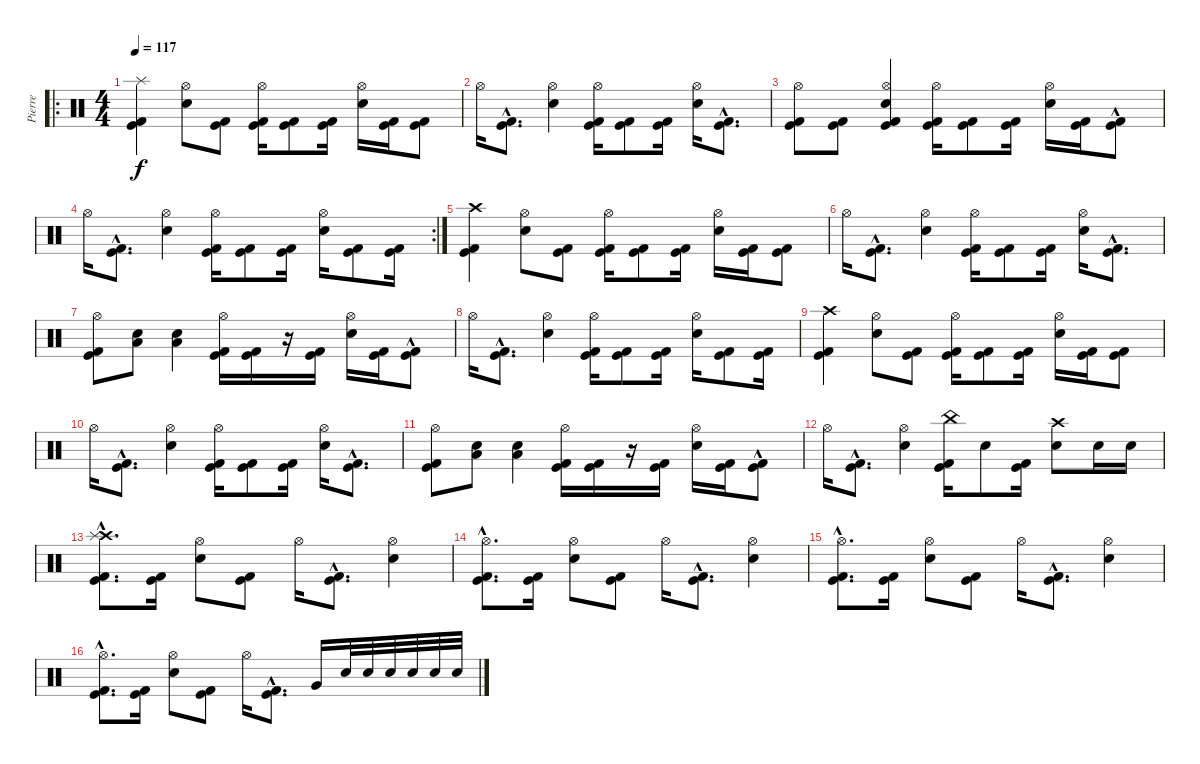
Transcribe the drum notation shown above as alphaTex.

\track ("Pierre" "Pierre") {instrument percussion}
\staff {score}
\articulation defaults
\ro
\ts (4 4)
\tempo 117
\clef neutral
\ks c
("Splash (hit)" "Kick (hit)" "Kick (hit) 2").4{dy f} ("Hi-Hat (open)" "Electric Snare (hit)").8 ("Kick (hit)" "Kick (hit) 2").8 ("Hi-Hat (open)" "Kick (hit)" "Kick (hit) 2").16 ("Kick (hit)" "Kick (hit) 2").8 ("Kick (hit)" "Kick (hit) 2").16 ("Hi-Hat (open)" "Electric Snare (hit)").16 ("Kick (hit)" "Kick (hit) 2").16 ("Kick (hit)" "Kick (hit) 2").8 |
"Hi-Hat (open)".16 ("Kick (hit)"{hac} "Kick (hit) 2"{hac}).8{d} ("Hi-Hat (open)" "Electric Snare (hit)").4 ("Hi-Hat (open)" "Kick (hit)" "Kick (hit) 2").16 ("Kick (hit)" "Kick (hit) 2").8 ("Kick (hit)" "Kick (hit) 2").16 ("Hi-Hat (open)" "Electric Snare (hit)").16 ("Kick (hit)"{hac} "Kick (hit) 2"{hac}).8{d} |
("Hi-Hat (open)" "Kick (hit)" "Kick (hit) 2").8 ("Kick (hit)" "Kick (hit) 2").8 ("Hi-Hat (open)" "Kick (hit)" "Electric Snare (hit)" "Kick (hit) 2").4 ("Hi-Hat (open)" "Kick (hit)" "Kick (hit) 2").16 ("Kick (hit)" "Kick (hit) 2").8 ("Kick (hit)" "Kick (hit) 2").16 ("Hi-Hat (open)" "Electric Snare (hit)").16 ("Kick (hit)" "Kick (hit) 2").16 ("Kick (hit)" "Kick (hit) 2"{hac}).8 |
\rc 2 "Hi-Hat (open)".16
("Kick (hit)"{hac} "Kick (hit) 2"{hac}).8{d} ("Hi-Hat (open)" "Electric Snare (hit)").4 ("Hi-Hat (open)" "Kick (hit)" "Kick (hit) 2").16 ("Kick (hit)" "Kick (hit) 2").8 ("Kick (hit)" "Kick (hit) 2").16 ("Hi-Hat (open)" "Electric Snare (hit)").16 ("Kick (hit)" "Kick (hit) 2").8 ("Kick (hit)" "Kick (hit) 2").16 |
("Crash high (hit)" "Kick (hit)" "Kick (hit) 2").4 ("Hi-Hat (open)" "Electric Snare (hit)").8 ("Kick (hit)" "Kick (hit) 2").8 ("Hi-Hat (open)" "Kick (hit)" "Kick (hit) 2").16 ("Kick (hit)" "Kick (hit) 2").8 ("Kick (hit)" "Kick (hit) 2").16 ("Hi-Hat (open)" "Electric Snare (hit)").16 ("Kick (hit)" "Kick (hit) 2").16 ("Kick (hit)" "Kick (hit) 2").8 |
"Hi-Hat (open)".16 ("Kick (hit)"{hac} "Kick (hit) 2"{hac}).8{d} ("Hi-Hat (open)" "Electric Snare (hit)").4 ("Hi-Hat (open)" "Kick (hit)" "Kick (hit) 2").16 ("Kick (hit)" "Kick (hit) 2").8 ("Kick (hit)" "Kick (hit) 2").16 ("Hi-Hat (open)" "Electric Snare (hit)").16 ("Kick (hit)" "Kick (hit) 2"{hac}).8{d} |
("Hi-Hat (open)" "Kick (hit)" "Kick (hit) 2").8 ("Low Floor Tom (hit)" "Electric Snare (hit)").8 ("Low Floor Tom (hit)" "Electric Snare (hit)").4 ("Hi-Hat (open)" "Kick (hit) 2" "Kick (hit)").16 ("Kick (hit)" "Kick (hit) 2").16 r.16 ("Kick (hit)" "Kick (hit) 2").16 ("Hi-Hat (open)" "Electric Snare (hit)").16 ("Kick (hit)" "Kick (hit) 2").16 ("Kick (hit)" "Kick (hit) 2"{hac}).8 |
"Hi-Hat (open)".16 ("Kick (hit)"{hac} "Kick (hit) 2"{hac}).8{d} ("Hi-Hat (open)" "Electric Snare (hit)").4 ("Hi-Hat (open)" "Kick (hit)" "Kick (hit) 2").16 ("Kick (hit)" "Kick (hit) 2").8 ("Kick (hit)" "Kick (hit) 2").16 ("Hi-Hat (open)" "Electric Snare (hit)").16 ("Kick (hit)" "Kick (hit) 2").8 ("Kick (hit)" "Kick (hit) 2").16 |
("Crash high (hit)" "Kick (hit)" "Kick (hit) 2").4 ("Hi-Hat (open)" "Electric Snare (hit)").8 ("Kick (hit)" "Kick (hit) 2").8 ("Hi-Hat (open)" "Kick (hit)" "Kick (hit) 2").16 ("Kick (hit)" "Kick (hit) 2").8 ("Kick (hit)" "Kick (hit) 2").16 ("Hi-Hat (open)" "Electric Snare (hit)").16 ("Kick (hit)" "Kick (hit) 2").16 ("Kick (hit)" "Kick (hit) 2").8 |
"Hi-Hat (open)".16 ("Kick (hit)"{hac} "Kick (hit) 2"{hac}).8{d} ("Hi-Hat (open)" "Electric Snare (hit)").4 ("Hi-Hat (open)" "Kick (hit)" "Kick (hit) 2").16 ("Kick (hit)" "Kick (hit) 2").8 ("Kick (hit)" "Kick (hit) 2").16 ("Hi-Hat (open)" "Electric Snare (hit)").16 ("Kick (hit)" "Kick (hit) 2"{hac}).8{d} |
("Hi-Hat (open)" "Kick (hit)" "Kick (hit) 2").8 ("Low Floor Tom (hit)" "Electric Snare (hit)").8 ("Low Floor Tom (hit)" "Electric Snare (hit)").4 ("Hi-Hat (open)" "Kick (hit) 2" "Kick (hit)").16 ("Kick (hit)" "Kick (hit) 2").16 r.16 ("Kick (hit)" "Kick (hit) 2").16 ("Hi-Hat (open)" "Electric Snare (hit)").16 ("Kick (hit)" "Kick (hit) 2").16 ("Kick (hit)" "Kick (hit) 2"{hac}).8 |
"Hi-Hat (open)".16 ("Kick (hit)"{hac} "Kick (hit) 2"{hac}).8{d} ("Hi-Hat (open)" "Electric Snare (hit)").4 ("China (hit)" "Kick (hit)" "Kick (hit) 2").16 "Electric Snare (hit)".8 ("Kick (hit)" "Kick (hit) 2").16 ("Crash high (hit)" "Electric Snare (hit)").8 "Electric Snare (hit)".16 "Electric Snare (hit)".16 |
("Crash high (hit)"{hac} "Splash (hit)"{hac} "Kick (hit)"{hac} "Kick (hit) 2").8{d} ("Kick (hit)" "Kick (hit) 2").16 ("Hi-Hat (open)" "Electric Snare (hit)").8 ("Kick (hit)" "Kick (hit) 2").8 "Hi-Hat (open)".16 ("Kick (hit)"{hac} "Kick (hit) 2"{hac}).8{d} ("Hi-Hat (open)" "Electric Snare (hit)").4 |
("Hi-Hat (open)"{hac} "Kick (hit)"{hac} "Kick (hit) 2").8{d} ("Kick (hit)" "Kick (hit) 2").16 ("Hi-Hat (open)" "Electric Snare (hit)").8 ("Kick (hit)" "Kick (hit) 2").8 "Hi-Hat (open)".16 ("Kick (hit)"{hac} "Kick (hit) 2"{hac}).8{d} ("Hi-Hat (open)" "Electric Snare (hit)").4 |
("Hi-Hat (open)"{hac} "Kick (hit)"{hac} "Kick (hit) 2").8{d} ("Kick (hit)" "Kick (hit) 2").16 ("Hi-Hat (open)" "Electric Snare (hit)").8 ("Kick (hit)" "Kick (hit) 2").8 "Hi-Hat (open)".16 ("Kick (hit)"{hac} "Kick (hit) 2"{hac}).8{d} ("Hi-Hat (open)" "Electric Snare (hit)").4 |
("Hi-Hat (open)"{hac} "Kick (hit)" "Kick (hit) 2").8{d} ("Kick (hit)" "Kick (hit) 2").16 ("Hi-Hat (open)" "Electric Snare (hit)").8 ("Kick (hit)" "Kick (hit) 2").8 "Hi-Hat (open)".16 ("Kick (hit)"{hac} "Kick (hit) 2"{hac}).8{d} "Very Low Tom (hit)".16 "Electric Snare (hit)".32 "Electric Snare (hit)".32 "Electric Snare (hit)".32 "Electric Snare (hit)".32 "Electric Snare (hit)".32 "Electric Snare (hit)".32
